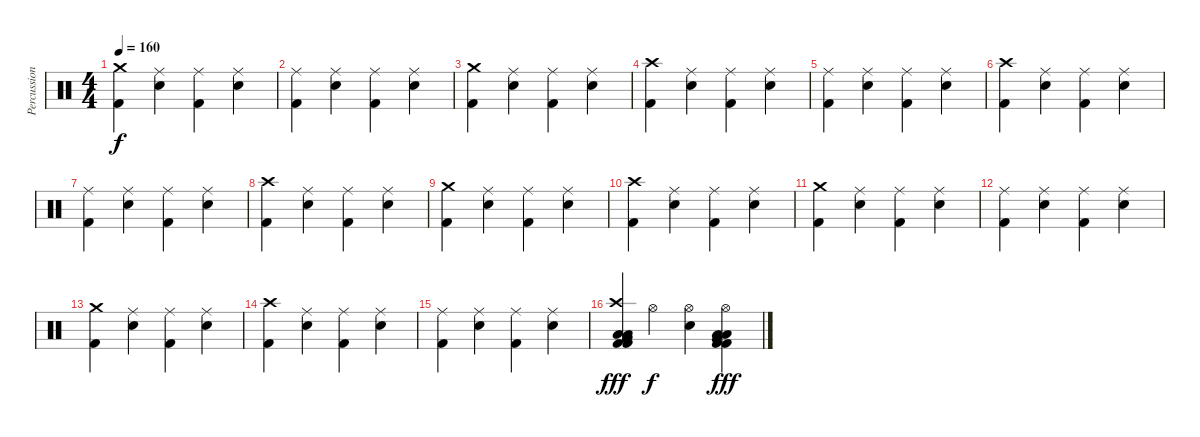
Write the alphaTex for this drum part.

\track ("Percussion" "Percussion") {instrument percussion}
\staff {score}
\articulation defaults
\ts (4 4)
\tempo 160
\clef neutral
\ks c
("Crash medium (hit)" "Kick (hit) 2").4{dy f} ("Ride (middle)" "Snare (hit) 2").4 ("Ride (middle)" "Kick (hit) 2").4 ("Ride (middle)" "Snare (hit) 2").4 |
("Ride (middle)" "Kick (hit) 2").4 ("Ride (middle)" "Snare (hit) 2").4 ("Ride (middle)" "Kick (hit) 2").4 ("Ride (middle)" "Snare (hit) 2").4 |
("Crash medium (hit)" "Kick (hit) 2").4 ("Ride (middle)" "Snare (hit) 2").4 ("Ride (middle)" "Kick (hit) 2").4 ("Ride (middle)" "Snare (hit) 2").4 |
("Crash high (hit)" "Kick (hit) 2").4 ("Ride (middle)" "Snare (hit) 2").4 ("Ride (middle)" "Kick (hit) 2").4 ("Ride (middle)" "Snare (hit) 2").4 |
("Ride (middle)" "Kick (hit) 2").4 ("Ride (middle)" "Snare (hit) 2").4 ("Ride (middle)" "Kick (hit) 2").4 ("Ride (middle)" "Snare (hit) 2").4 |
("Crash high (hit)" "Kick (hit) 2").4 ("Ride (middle)" "Snare (hit) 2").4 ("Ride (middle)" "Kick (hit) 2").4 ("Ride (middle)" "Snare (hit) 2").4 |
("Ride (middle)" "Kick (hit) 2").4 ("Ride (middle)" "Snare (hit) 2").4 ("Ride (middle)" "Kick (hit) 2").4 ("Ride (middle)" "Snare (hit) 2").4 |
("Crash high (hit)" "Kick (hit) 2").4 ("Ride (middle)" "Snare (hit) 2").4 ("Ride (middle)" "Kick (hit) 2").4 ("Ride (middle)" "Snare (hit) 2").4 |
("Crash medium (hit)" "Kick (hit) 2").4 ("Ride (middle)" "Snare (hit) 2").4 ("Ride (middle)" "Kick (hit) 2").4 ("Ride (middle)" "Snare (hit) 2").4 |
("Crash high (hit)" "Kick (hit) 2").4 ("Ride (middle)" "Snare (hit) 2").4 ("Ride (middle)" "Kick (hit) 2").4 ("Ride (middle)" "Snare (hit) 2").4 |
("Crash medium (hit)" "Kick (hit) 2").4 ("Ride (middle)" "Snare (hit) 2").4 ("Ride (middle)" "Kick (hit) 2").4 ("Ride (middle)" "Snare (hit) 2").4 |
("Ride (middle)" "Kick (hit) 2").4 ("Ride (middle)" "Snare (hit) 2").4 ("Ride (middle)" "Kick (hit) 2").4 ("Ride (middle)" "Snare (hit) 2").4 |
("Crash medium (hit)" "Kick (hit) 2").4 ("Ride (middle)" "Snare (hit) 2").4 ("Ride (middle)" "Kick (hit) 2").4 ("Ride (middle)" "Snare (hit) 2").4 |
("Crash high (hit)" "Kick (hit) 2").4 ("Ride (middle)" "Snare (hit) 2").4 ("Ride (middle)" "Kick (hit) 2").4 ("Ride (middle)" "Snare (hit) 2").4 |
("Ride (middle)" "Kick (hit) 2").4 ("Ride (middle)" "Snare (hit) 2").4 ("Ride (middle)" "Kick (hit) 2").4 ("Ride (middle)" "Snare (hit) 2").4 |
("Crash high (hit)" "Low Tom (hit)" "Very Low Tom (hit)" "Low Floor Tom (hit)" "Kick (hit) 2" "Kick (hit) 2").4{dy fff} "Hi-Hat (open)".4{dy f} ("Hi-Hat (open)" "Snare (hit) 2").4 ("Hi-Hat (open)" "Low Tom (hit)" "Very Low Tom (hit)" "Low Floor Tom (hit)" "Kick (hit) 2" "Kick (hit) 2").4{dy fff}
